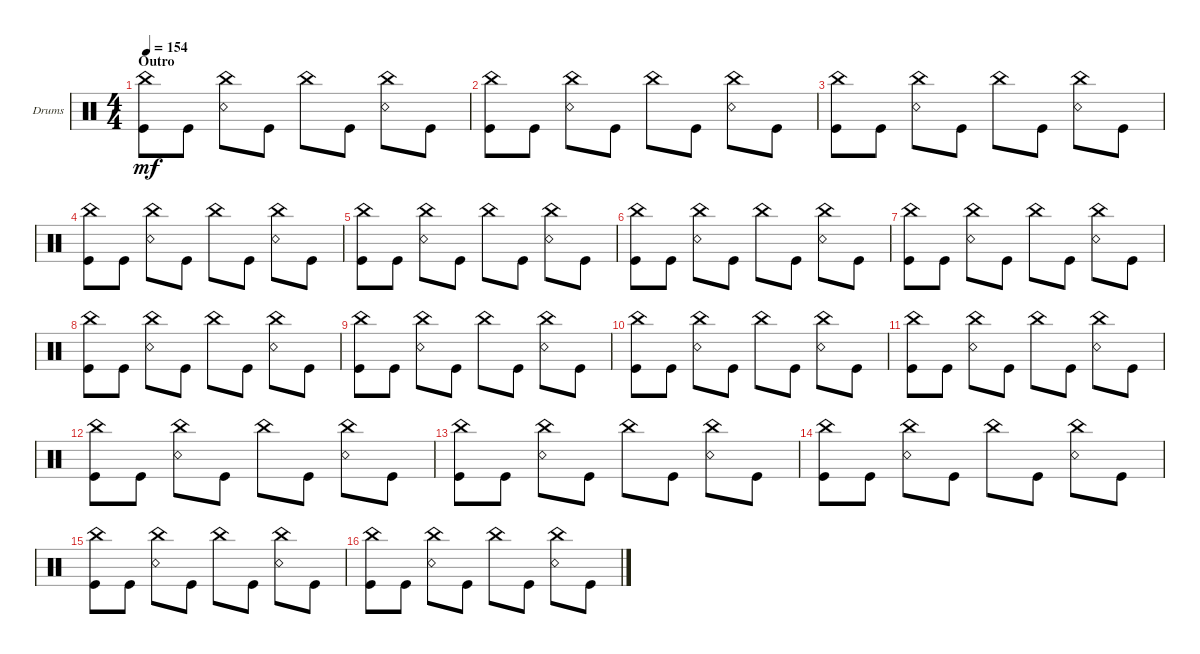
\defaultSystemsLayout 4
\bracketExtendMode groupsimilarinstruments
\firstSystemTrackNameOrientation horizontal
\otherSystemsTrackNameOrientation horizontal
\track ("Drumkit" "Drums") {instrument percussion}
\staff {score}
\articulation defaults
\ts (4 4)
\section ("" "Outro")
\tempo 154
\clef neutral
\ks c
("Kick (hit)" "China (hit)").8{dy mf} "Kick (hit)".8 ("Snare (rim shot)" "China (hit)").8 "Kick (hit)".8 "China (hit)".8 "Kick (hit)".8 ("Snare (rim shot)" "China (hit)").8 "Kick (hit)".8 |
("Kick (hit)" "China (hit)").8 "Kick (hit)".8 ("Snare (rim shot)" "China (hit)").8 "Kick (hit)".8 "China (hit)".8 "Kick (hit)".8 ("Snare (rim shot)" "China (hit)").8 "Kick (hit)".8 |
("Kick (hit)" "China (hit)").8 "Kick (hit)".8 ("Snare (rim shot)" "China (hit)").8 "Kick (hit)".8 "China (hit)".8 "Kick (hit)".8 ("Snare (rim shot)" "China (hit)").8 "Kick (hit)".8 |
("Kick (hit)" "China (hit)").8 "Kick (hit)".8 ("Snare (rim shot)" "China (hit)").8 "Kick (hit)".8 "China (hit)".8 "Kick (hit)".8 ("Snare (rim shot)" "China (hit)").8 "Kick (hit)".8 |
("Kick (hit)" "China (hit)").8 "Kick (hit)".8 ("Snare (rim shot)" "China (hit)").8 "Kick (hit)".8 "China (hit)".8 "Kick (hit)".8 ("Snare (rim shot)" "China (hit)").8 "Kick (hit)".8 |
("Kick (hit)" "China (hit)").8 "Kick (hit)".8 ("Snare (rim shot)" "China (hit)").8 "Kick (hit)".8 "China (hit)".8 "Kick (hit)".8 ("Snare (rim shot)" "China (hit)").8 "Kick (hit)".8 |
("Kick (hit)" "China (hit)").8 "Kick (hit)".8 ("Snare (rim shot)" "China (hit)").8 "Kick (hit)".8 "China (hit)".8 "Kick (hit)".8 ("Snare (rim shot)" "China (hit)").8 "Kick (hit)".8 |
("Kick (hit)" "China (hit)").8 "Kick (hit)".8 ("Snare (rim shot)" "China (hit)").8 "Kick (hit)".8 "China (hit)".8 "Kick (hit)".8 ("Snare (rim shot)" "China (hit)").8 "Kick (hit)".8 |
("Kick (hit)" "China (hit)").8 "Kick (hit)".8 ("Snare (rim shot)" "China (hit)").8 "Kick (hit)".8 "China (hit)".8 "Kick (hit)".8 ("Snare (rim shot)" "China (hit)").8 "Kick (hit)".8 |
("Kick (hit)" "China (hit)").8 "Kick (hit)".8 ("Snare (rim shot)" "China (hit)").8 "Kick (hit)".8 "China (hit)".8 "Kick (hit)".8 ("Snare (rim shot)" "China (hit)").8 "Kick (hit)".8 |
("Kick (hit)" "China (hit)").8 "Kick (hit)".8 ("Snare (rim shot)" "China (hit)").8 "Kick (hit)".8 "China (hit)".8 "Kick (hit)".8 ("Snare (rim shot)" "China (hit)").8 "Kick (hit)".8 |
("Kick (hit)" "China (hit)").8 "Kick (hit)".8 ("Snare (rim shot)" "China (hit)").8 "Kick (hit)".8 "China (hit)".8 "Kick (hit)".8 ("Snare (rim shot)" "China (hit)").8 "Kick (hit)".8 |
("Kick (hit)" "China (hit)").8 "Kick (hit)".8 ("Snare (rim shot)" "China (hit)").8 "Kick (hit)".8 "China (hit)".8 "Kick (hit)".8 ("Snare (rim shot)" "China (hit)").8 "Kick (hit)".8 |
("Kick (hit)" "China (hit)").8 "Kick (hit)".8 ("Snare (rim shot)" "China (hit)").8 "Kick (hit)".8 "China (hit)".8 "Kick (hit)".8 ("Snare (rim shot)" "China (hit)").8 "Kick (hit)".8 |
("Kick (hit)" "China (hit)").8 "Kick (hit)".8 ("Snare (rim shot)" "China (hit)").8 "Kick (hit)".8 "China (hit)".8 "Kick (hit)".8 ("Snare (rim shot)" "China (hit)").8 "Kick (hit)".8 |
("Kick (hit)" "China (hit)").8 "Kick (hit)".8 ("Snare (rim shot)" "China (hit)").8 "Kick (hit)".8 "China (hit)".8 "Kick (hit)".8 ("Snare (rim shot)" "China (hit)").8 "Kick (hit)".8
